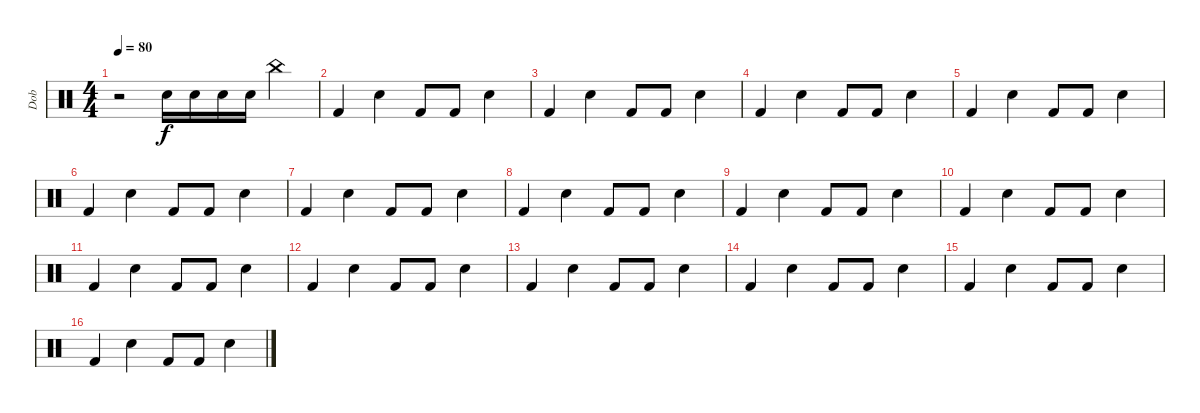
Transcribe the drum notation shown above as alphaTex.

\track ("Dob" "Dob") {instrument percussion}
\staff {score}
\articulation defaults
\ts (4 4)
\tempo 80
\clef neutral
\ks c
r.2{dy f} "Snare (hit) 2".16 "Snare (hit) 2".16 "Snare (hit) 2".16 "Snare (hit) 2".16 "China (hit)".4 |
"Kick (hit) 2".4 "Snare (hit) 2".4 "Kick (hit) 2".8 "Kick (hit) 2".8 "Snare (hit) 2".4 |
"Kick (hit) 2".4 "Snare (hit) 2".4 "Kick (hit) 2".8 "Kick (hit) 2".8 "Snare (hit) 2".4 |
"Kick (hit) 2".4 "Snare (hit) 2".4 "Kick (hit) 2".8 "Kick (hit) 2".8 "Snare (hit) 2".4 |
"Kick (hit) 2".4 "Snare (hit) 2".4 "Kick (hit) 2".8 "Kick (hit) 2".8 "Snare (hit) 2".4 |
"Kick (hit) 2".4 "Snare (hit) 2".4 "Kick (hit) 2".8 "Kick (hit) 2".8 "Snare (hit) 2".4 |
"Kick (hit) 2".4 "Snare (hit) 2".4 "Kick (hit) 2".8 "Kick (hit) 2".8 "Snare (hit) 2".4 |
"Kick (hit) 2".4 "Snare (hit) 2".4 "Kick (hit) 2".8 "Kick (hit) 2".8 "Snare (hit) 2".4 |
"Kick (hit) 2".4 "Snare (hit) 2".4 "Kick (hit) 2".8 "Kick (hit) 2".8 "Snare (hit) 2".4 |
"Kick (hit) 2".4 "Snare (hit) 2".4 "Kick (hit) 2".8 "Kick (hit) 2".8 "Snare (hit) 2".4 |
"Kick (hit) 2".4 "Snare (hit) 2".4 "Kick (hit) 2".8 "Kick (hit) 2".8 "Snare (hit) 2".4 |
"Kick (hit) 2".4 "Snare (hit) 2".4 "Kick (hit) 2".8 "Kick (hit) 2".8 "Snare (hit) 2".4 |
"Kick (hit) 2".4 "Snare (hit) 2".4 "Kick (hit) 2".8 "Kick (hit) 2".8 "Snare (hit) 2".4 |
"Kick (hit) 2".4 "Snare (hit) 2".4 "Kick (hit) 2".8 "Kick (hit) 2".8 "Snare (hit) 2".4 |
"Kick (hit) 2".4 "Snare (hit) 2".4 "Kick (hit) 2".8 "Kick (hit) 2".8 "Snare (hit) 2".4 |
"Kick (hit) 2".4 "Snare (hit) 2".4 "Kick (hit) 2".8 "Kick (hit) 2".8 "Snare (hit) 2".4
